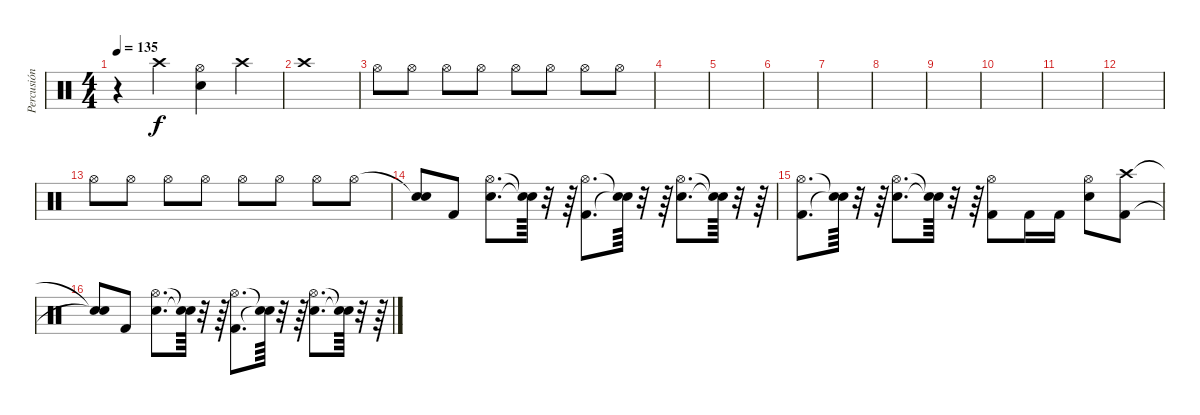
\track ("Percusión" "Percusión") {instrument percussion}
\staff {score}
\articulation defaults
\ts (4 4)
\tempo 135
\clef neutral
\ks c
r.4{dy f} "Crash high (hit)".4 ("Snare (hit) 2" "Hi-Hat (open)").4 "Crash high (hit)".4 |
"Crash high (hit)".1 |
"Hi-Hat (open)".8 "Hi-Hat (open)".8 "Hi-Hat (open)".8 "Hi-Hat (open)".8 "Hi-Hat (open)".8 "Hi-Hat (open)".8 "Hi-Hat (open)".8 "Hi-Hat (open)".8 |
|
|
|
|
|
|
|
|
|
"Hi-Hat (open)".8 "Hi-Hat (open)".8 "Hi-Hat (open)".8 "Hi-Hat (open)".8 "Hi-Hat (open)".8 "Hi-Hat (open)".8 "Hi-Hat (open)".8 "Hi-Hat (open)".8 |
("Snare (hit)"{t} "Snare (hit)").8 "Kick (hit) 2".8 ("Snare (hit) 2" "Hi-Hat (open)").8{d} ("Snare (hit)"{t} "Snare (hit)"{t}).64 r.32 r.64 ("Kick (hit) 2" "Hi-Hat (open)").8{d} ("Snare (hit)"{t} "Snare (hit)"{t}).64 r.32 r.64 ("Snare (hit) 2" "Hi-Hat (open)").8{d} ("Snare (hit)"{t} "Snare (hit)"{t}).64 r.32 r.64 |
("Kick (hit) 2" "Hi-Hat (open)").8{d} ("Snare (hit)"{t} "Snare (hit)"{t}).64 r.32 r.64 ("Snare (hit) 2" "Hi-Hat (open)").8{d} ("Snare (hit)"{t} "Snare (hit)"{t}).64 r.32 r.64 ("Kick (hit) 2" "Hi-Hat (open)").8 "Kick (hit) 2".16 "Kick (hit) 2".16 ("Snare (hit) 2" "Hi-Hat (open)").8 ("Kick (hit) 2" "Crash high (hit)").8 |
("Snare (hit)"{t} "Snare (hit)"{t}).8 "Kick (hit) 2".8 ("Snare (hit) 2" "Hi-Hat (open)").8{d} ("Snare (hit)"{t} "Snare (hit)"{t}).64 r.32 r.64 ("Kick (hit) 2" "Hi-Hat (open)").8{d} ("Snare (hit)"{t} "Snare (hit)"{t}).64 r.32 r.64 ("Snare (hit) 2" "Hi-Hat (open)").8{d} ("Snare (hit)"{t} "Snare (hit)"{t}).64 r.32 r.64
